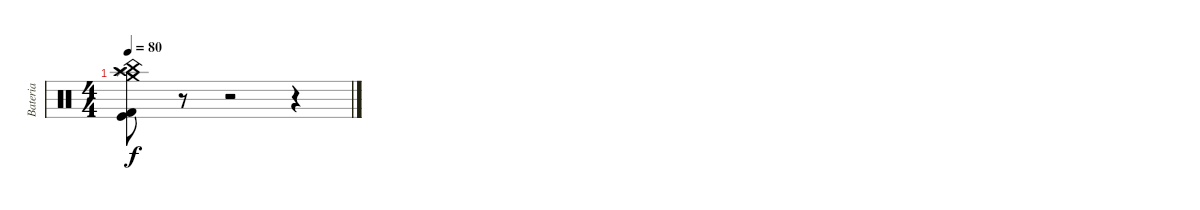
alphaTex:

\track ("Bateria" "Bateria") {instrument percussion}
\staff {score}
\articulation defaults
\ts (4 4)
\tempo 80
\clef neutral
\ks c
("Crash medium (hit)" "Splash (hit)" "China (hit)" "Crash high (hit)" "Kick (hit) 2" "Kick (hit)").8{dy f} r.8 r.2 r.4
